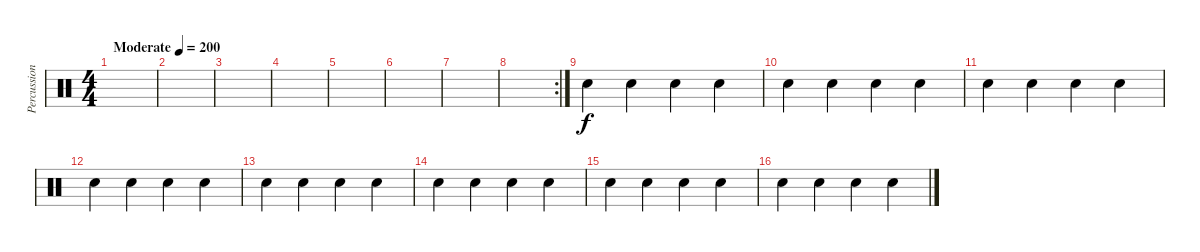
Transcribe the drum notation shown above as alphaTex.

\track ("Percussion" "Percussion") {instrument percussion}
\staff {score}
\articulation defaults
\ts (4 4)
\tempo (200 "Moderate")
\clef neutral
\ks c
|
|
|
|
|
|
|
\rc 2
|
"Snare (hit) 2".4 "Snare (hit) 2".4 "Snare (hit) 2".4 "Snare (hit) 2".4 |
"Snare (hit) 2".4 "Snare (hit) 2".4 "Snare (hit) 2".4 "Snare (hit) 2".4 |
"Snare (hit) 2".4 "Snare (hit) 2".4 "Snare (hit) 2".4 "Snare (hit) 2".4 |
"Snare (hit) 2".4 "Snare (hit) 2".4 "Snare (hit) 2".4 "Snare (hit) 2".4 |
"Snare (hit) 2".4 "Snare (hit) 2".4 "Snare (hit) 2".4 "Snare (hit) 2".4 |
"Snare (hit) 2".4 "Snare (hit) 2".4 "Snare (hit) 2".4 "Snare (hit) 2".4 |
"Snare (hit) 2".4 "Snare (hit) 2".4 "Snare (hit) 2".4 "Snare (hit) 2".4 |
"Snare (hit) 2".4 "Snare (hit) 2".4 "Snare (hit) 2".4 "Snare (hit) 2".4
